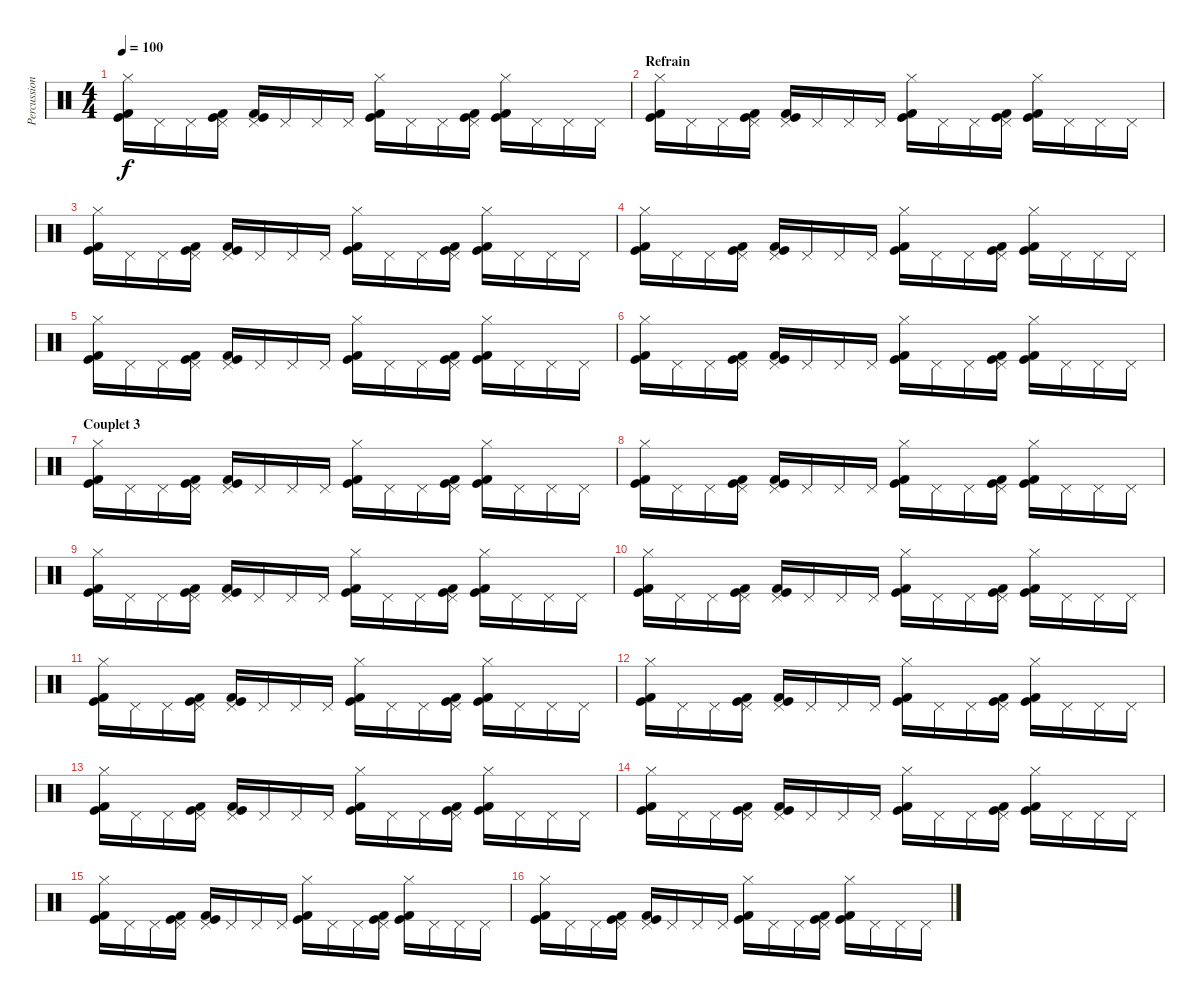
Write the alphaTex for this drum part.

\track ("Percussions" "Percussion") {instrument percussion}
\staff {score}
\articulation defaults
\ts (4 4)
\tempo 100
\clef neutral
\ks c
("Kick (hit)" "Kick (hit) 2" "Hi-Hat (closed)").16{dy f} "Pedal Hi-Hat (hit)".16 "Pedal Hi-Hat (hit)".16 ("Kick (hit)" "Kick (hit) 2" "Pedal Hi-Hat (hit)").16 ("Kick (hit)" "Kick (hit) 2" "Pedal Hi-Hat (hit)").16 "Pedal Hi-Hat (hit)".16 "Pedal Hi-Hat (hit)".16 "Pedal Hi-Hat (hit)".16 ("Kick (hit)" "Kick (hit) 2" "Hi-Hat (closed)").16 "Pedal Hi-Hat (hit)".16 "Pedal Hi-Hat (hit)".16 ("Kick (hit)" "Kick (hit) 2" "Pedal Hi-Hat (hit)").16 ("Kick (hit)" "Kick (hit) 2" "Hi-Hat (closed)").16 "Pedal Hi-Hat (hit)".16 "Pedal Hi-Hat (hit)".16 "Pedal Hi-Hat (hit)".16 |
\section ("" "Refrain")
("Kick (hit)" "Kick (hit) 2" "Hi-Hat (closed)").16 "Pedal Hi-Hat (hit)".16 "Pedal Hi-Hat (hit)".16 ("Kick (hit)" "Kick (hit) 2" "Pedal Hi-Hat (hit)").16 ("Kick (hit)" "Kick (hit) 2" "Pedal Hi-Hat (hit)").16 "Pedal Hi-Hat (hit)".16 "Pedal Hi-Hat (hit)".16 "Pedal Hi-Hat (hit)".16 ("Kick (hit)" "Kick (hit) 2" "Hi-Hat (closed)").16 "Pedal Hi-Hat (hit)".16 "Pedal Hi-Hat (hit)".16 ("Kick (hit)" "Kick (hit) 2" "Pedal Hi-Hat (hit)").16 ("Kick (hit)" "Kick (hit) 2" "Hi-Hat (closed)").16 "Pedal Hi-Hat (hit)".16 "Pedal Hi-Hat (hit)".16 "Pedal Hi-Hat (hit)".16 |
("Kick (hit)" "Kick (hit) 2" "Hi-Hat (closed)").16 "Pedal Hi-Hat (hit)".16 "Pedal Hi-Hat (hit)".16 ("Kick (hit)" "Kick (hit) 2" "Pedal Hi-Hat (hit)").16 ("Kick (hit)" "Kick (hit) 2" "Pedal Hi-Hat (hit)").16 "Pedal Hi-Hat (hit)".16 "Pedal Hi-Hat (hit)".16 "Pedal Hi-Hat (hit)".16 ("Kick (hit)" "Kick (hit) 2" "Hi-Hat (closed)").16 "Pedal Hi-Hat (hit)".16 "Pedal Hi-Hat (hit)".16 ("Kick (hit)" "Kick (hit) 2" "Pedal Hi-Hat (hit)").16 ("Kick (hit)" "Kick (hit) 2" "Hi-Hat (closed)").16 "Pedal Hi-Hat (hit)".16 "Pedal Hi-Hat (hit)".16 "Pedal Hi-Hat (hit)".16 |
("Kick (hit)" "Kick (hit) 2" "Hi-Hat (closed)").16 "Pedal Hi-Hat (hit)".16 "Pedal Hi-Hat (hit)".16 ("Kick (hit)" "Kick (hit) 2" "Pedal Hi-Hat (hit)").16 ("Kick (hit)" "Kick (hit) 2" "Pedal Hi-Hat (hit)").16 "Pedal Hi-Hat (hit)".16 "Pedal Hi-Hat (hit)".16 "Pedal Hi-Hat (hit)".16 ("Kick (hit)" "Kick (hit) 2" "Hi-Hat (closed)").16 "Pedal Hi-Hat (hit)".16 "Pedal Hi-Hat (hit)".16 ("Kick (hit)" "Kick (hit) 2" "Pedal Hi-Hat (hit)").16 ("Kick (hit)" "Kick (hit) 2" "Hi-Hat (closed)").16 "Pedal Hi-Hat (hit)".16 "Pedal Hi-Hat (hit)".16 "Pedal Hi-Hat (hit)".16 |
("Kick (hit)" "Kick (hit) 2" "Hi-Hat (closed)").16 "Pedal Hi-Hat (hit)".16 "Pedal Hi-Hat (hit)".16 ("Kick (hit)" "Kick (hit) 2" "Pedal Hi-Hat (hit)").16 ("Kick (hit)" "Kick (hit) 2" "Pedal Hi-Hat (hit)").16 "Pedal Hi-Hat (hit)".16 "Pedal Hi-Hat (hit)".16 "Pedal Hi-Hat (hit)".16 ("Kick (hit)" "Kick (hit) 2" "Hi-Hat (closed)").16 "Pedal Hi-Hat (hit)".16 "Pedal Hi-Hat (hit)".16 ("Kick (hit)" "Kick (hit) 2" "Pedal Hi-Hat (hit)").16 ("Kick (hit)" "Kick (hit) 2" "Hi-Hat (closed)").16 "Pedal Hi-Hat (hit)".16 "Pedal Hi-Hat (hit)".16 "Pedal Hi-Hat (hit)".16 |
("Kick (hit)" "Kick (hit) 2" "Hi-Hat (closed)").16 "Pedal Hi-Hat (hit)".16 "Pedal Hi-Hat (hit)".16 ("Kick (hit)" "Kick (hit) 2" "Pedal Hi-Hat (hit)").16 ("Kick (hit)" "Kick (hit) 2" "Pedal Hi-Hat (hit)").16 "Pedal Hi-Hat (hit)".16 "Pedal Hi-Hat (hit)".16 "Pedal Hi-Hat (hit)".16 ("Kick (hit)" "Kick (hit) 2" "Hi-Hat (closed)").16 "Pedal Hi-Hat (hit)".16 "Pedal Hi-Hat (hit)".16 ("Kick (hit)" "Kick (hit) 2" "Pedal Hi-Hat (hit)").16 ("Kick (hit)" "Kick (hit) 2" "Hi-Hat (closed)").16 "Pedal Hi-Hat (hit)".16 "Pedal Hi-Hat (hit)".16 "Pedal Hi-Hat (hit)".16 |
\section ("" "Couplet 3")
("Kick (hit)" "Kick (hit) 2" "Hi-Hat (closed)").16 "Pedal Hi-Hat (hit)".16 "Pedal Hi-Hat (hit)".16 ("Kick (hit)" "Kick (hit) 2" "Pedal Hi-Hat (hit)").16 ("Kick (hit)" "Kick (hit) 2" "Pedal Hi-Hat (hit)").16 "Pedal Hi-Hat (hit)".16 "Pedal Hi-Hat (hit)".16 "Pedal Hi-Hat (hit)".16 ("Kick (hit)" "Kick (hit) 2" "Hi-Hat (closed)").16 "Pedal Hi-Hat (hit)".16 "Pedal Hi-Hat (hit)".16 ("Kick (hit)" "Kick (hit) 2" "Pedal Hi-Hat (hit)").16 ("Kick (hit)" "Kick (hit) 2" "Hi-Hat (closed)").16 "Pedal Hi-Hat (hit)".16 "Pedal Hi-Hat (hit)".16 "Pedal Hi-Hat (hit)".16 |
("Kick (hit)" "Kick (hit) 2" "Hi-Hat (closed)").16 "Pedal Hi-Hat (hit)".16 "Pedal Hi-Hat (hit)".16 ("Kick (hit)" "Kick (hit) 2" "Pedal Hi-Hat (hit)").16 ("Kick (hit)" "Kick (hit) 2" "Pedal Hi-Hat (hit)").16 "Pedal Hi-Hat (hit)".16 "Pedal Hi-Hat (hit)".16 "Pedal Hi-Hat (hit)".16 ("Kick (hit)" "Kick (hit) 2" "Hi-Hat (closed)").16 "Pedal Hi-Hat (hit)".16 "Pedal Hi-Hat (hit)".16 ("Kick (hit)" "Kick (hit) 2" "Pedal Hi-Hat (hit)").16 ("Kick (hit)" "Kick (hit) 2" "Hi-Hat (closed)").16 "Pedal Hi-Hat (hit)".16 "Pedal Hi-Hat (hit)".16 "Pedal Hi-Hat (hit)".16 |
("Kick (hit)" "Kick (hit) 2" "Hi-Hat (closed)").16 "Pedal Hi-Hat (hit)".16 "Pedal Hi-Hat (hit)".16 ("Kick (hit)" "Kick (hit) 2" "Pedal Hi-Hat (hit)").16 ("Kick (hit)" "Kick (hit) 2" "Pedal Hi-Hat (hit)").16 "Pedal Hi-Hat (hit)".16 "Pedal Hi-Hat (hit)".16 "Pedal Hi-Hat (hit)".16 ("Kick (hit)" "Kick (hit) 2" "Hi-Hat (closed)").16 "Pedal Hi-Hat (hit)".16 "Pedal Hi-Hat (hit)".16 ("Kick (hit)" "Kick (hit) 2" "Pedal Hi-Hat (hit)").16 ("Kick (hit)" "Kick (hit) 2" "Hi-Hat (closed)").16 "Pedal Hi-Hat (hit)".16 "Pedal Hi-Hat (hit)".16 "Pedal Hi-Hat (hit)".16 |
("Kick (hit)" "Kick (hit) 2" "Hi-Hat (closed)").16 "Pedal Hi-Hat (hit)".16 "Pedal Hi-Hat (hit)".16 ("Kick (hit)" "Kick (hit) 2" "Pedal Hi-Hat (hit)").16 ("Kick (hit)" "Kick (hit) 2" "Pedal Hi-Hat (hit)").16 "Pedal Hi-Hat (hit)".16 "Pedal Hi-Hat (hit)".16 "Pedal Hi-Hat (hit)".16 ("Kick (hit)" "Kick (hit) 2" "Hi-Hat (closed)").16 "Pedal Hi-Hat (hit)".16 "Pedal Hi-Hat (hit)".16 ("Kick (hit)" "Kick (hit) 2" "Pedal Hi-Hat (hit)").16 ("Kick (hit)" "Kick (hit) 2" "Hi-Hat (closed)").16 "Pedal Hi-Hat (hit)".16 "Pedal Hi-Hat (hit)".16 "Pedal Hi-Hat (hit)".16 |
("Kick (hit)" "Kick (hit) 2" "Hi-Hat (closed)").16 "Pedal Hi-Hat (hit)".16 "Pedal Hi-Hat (hit)".16 ("Kick (hit)" "Kick (hit) 2" "Pedal Hi-Hat (hit)").16 ("Kick (hit)" "Kick (hit) 2" "Pedal Hi-Hat (hit)").16 "Pedal Hi-Hat (hit)".16 "Pedal Hi-Hat (hit)".16 "Pedal Hi-Hat (hit)".16 ("Kick (hit)" "Kick (hit) 2" "Hi-Hat (closed)").16 "Pedal Hi-Hat (hit)".16 "Pedal Hi-Hat (hit)".16 ("Kick (hit)" "Kick (hit) 2" "Pedal Hi-Hat (hit)").16 ("Kick (hit)" "Kick (hit) 2" "Hi-Hat (closed)").16 "Pedal Hi-Hat (hit)".16 "Pedal Hi-Hat (hit)".16 "Pedal Hi-Hat (hit)".16 |
("Kick (hit)" "Kick (hit) 2" "Hi-Hat (closed)").16 "Pedal Hi-Hat (hit)".16 "Pedal Hi-Hat (hit)".16 ("Kick (hit)" "Kick (hit) 2" "Pedal Hi-Hat (hit)").16 ("Kick (hit)" "Kick (hit) 2" "Pedal Hi-Hat (hit)").16 "Pedal Hi-Hat (hit)".16 "Pedal Hi-Hat (hit)".16 "Pedal Hi-Hat (hit)".16 ("Kick (hit)" "Kick (hit) 2" "Hi-Hat (closed)").16 "Pedal Hi-Hat (hit)".16 "Pedal Hi-Hat (hit)".16 ("Kick (hit)" "Kick (hit) 2" "Pedal Hi-Hat (hit)").16 ("Kick (hit)" "Kick (hit) 2" "Hi-Hat (closed)").16 "Pedal Hi-Hat (hit)".16 "Pedal Hi-Hat (hit)".16 "Pedal Hi-Hat (hit)".16 |
("Kick (hit)" "Kick (hit) 2" "Hi-Hat (closed)").16 "Pedal Hi-Hat (hit)".16 "Pedal Hi-Hat (hit)".16 ("Kick (hit)" "Kick (hit) 2" "Pedal Hi-Hat (hit)").16 ("Kick (hit)" "Kick (hit) 2" "Pedal Hi-Hat (hit)").16 "Pedal Hi-Hat (hit)".16 "Pedal Hi-Hat (hit)".16 "Pedal Hi-Hat (hit)".16 ("Kick (hit)" "Kick (hit) 2" "Hi-Hat (closed)").16 "Pedal Hi-Hat (hit)".16 "Pedal Hi-Hat (hit)".16 ("Kick (hit)" "Kick (hit) 2" "Pedal Hi-Hat (hit)").16 ("Kick (hit)" "Kick (hit) 2" "Hi-Hat (closed)").16 "Pedal Hi-Hat (hit)".16 "Pedal Hi-Hat (hit)".16 "Pedal Hi-Hat (hit)".16 |
("Kick (hit)" "Kick (hit) 2" "Hi-Hat (closed)").16 "Pedal Hi-Hat (hit)".16 "Pedal Hi-Hat (hit)".16 ("Kick (hit)" "Kick (hit) 2" "Pedal Hi-Hat (hit)").16 ("Kick (hit)" "Kick (hit) 2" "Pedal Hi-Hat (hit)").16 "Pedal Hi-Hat (hit)".16 "Pedal Hi-Hat (hit)".16 "Pedal Hi-Hat (hit)".16 ("Kick (hit)" "Kick (hit) 2" "Hi-Hat (closed)").16 "Pedal Hi-Hat (hit)".16 "Pedal Hi-Hat (hit)".16 ("Kick (hit)" "Kick (hit) 2" "Pedal Hi-Hat (hit)").16 ("Kick (hit)" "Kick (hit) 2" "Hi-Hat (closed)").16 "Pedal Hi-Hat (hit)".16 "Pedal Hi-Hat (hit)".16 "Pedal Hi-Hat (hit)".16 |
("Kick (hit)" "Kick (hit) 2" "Hi-Hat (closed)").16 "Pedal Hi-Hat (hit)".16 "Pedal Hi-Hat (hit)".16 ("Kick (hit)" "Kick (hit) 2" "Pedal Hi-Hat (hit)").16 ("Kick (hit)" "Kick (hit) 2" "Pedal Hi-Hat (hit)").16 "Pedal Hi-Hat (hit)".16 "Pedal Hi-Hat (hit)".16 "Pedal Hi-Hat (hit)".16 ("Kick (hit)" "Kick (hit) 2" "Hi-Hat (closed)").16 "Pedal Hi-Hat (hit)".16 "Pedal Hi-Hat (hit)".16 ("Kick (hit)" "Kick (hit) 2" "Pedal Hi-Hat (hit)").16 ("Kick (hit)" "Kick (hit) 2" "Hi-Hat (closed)").16 "Pedal Hi-Hat (hit)".16 "Pedal Hi-Hat (hit)".16 "Pedal Hi-Hat (hit)".16 |
("Kick (hit)" "Kick (hit) 2" "Hi-Hat (closed)").16 "Pedal Hi-Hat (hit)".16 "Pedal Hi-Hat (hit)".16 ("Kick (hit)" "Kick (hit) 2" "Pedal Hi-Hat (hit)").16 ("Kick (hit)" "Kick (hit) 2" "Pedal Hi-Hat (hit)").16 "Pedal Hi-Hat (hit)".16 "Pedal Hi-Hat (hit)".16 "Pedal Hi-Hat (hit)".16 ("Kick (hit)" "Kick (hit) 2" "Hi-Hat (closed)").16 "Pedal Hi-Hat (hit)".16 "Pedal Hi-Hat (hit)".16 ("Kick (hit)" "Kick (hit) 2" "Pedal Hi-Hat (hit)").16 ("Kick (hit)" "Kick (hit) 2" "Hi-Hat (closed)").16 "Pedal Hi-Hat (hit)".16 "Pedal Hi-Hat (hit)".16 "Pedal Hi-Hat (hit)".16
